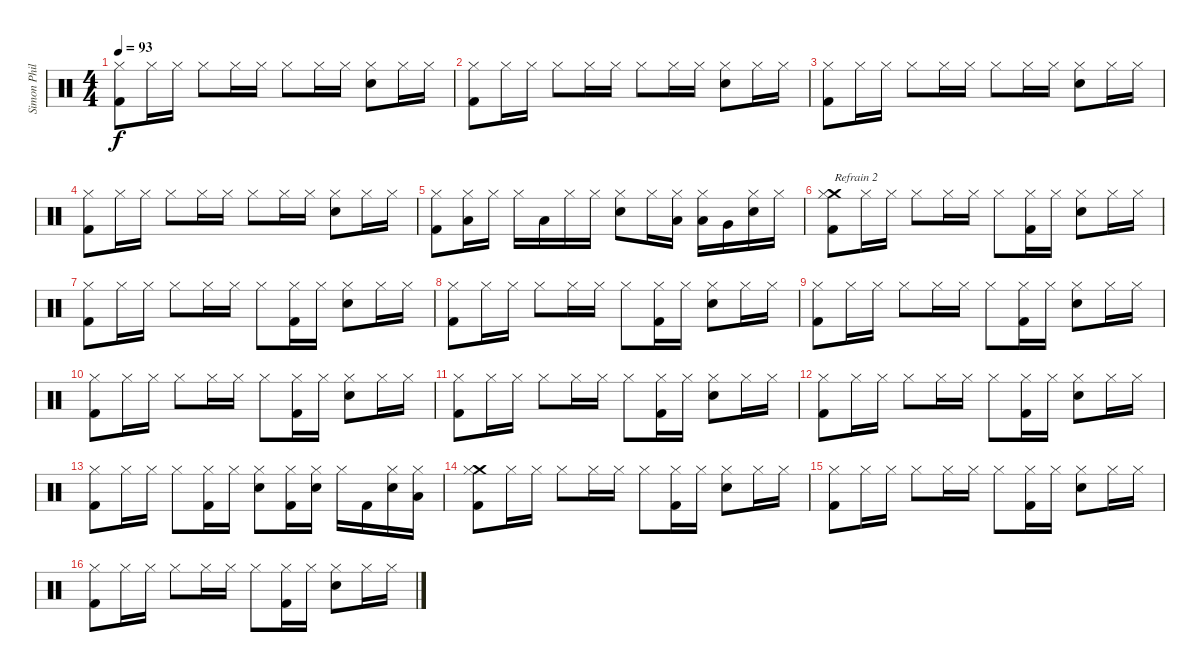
\track ("Simon Phillips" "Simon Phil") {instrument percussion}
\staff {score}
\articulation defaults
\ts (4 4)
\tempo 93
\clef neutral
\ks c
("Hi-Hat (closed)" "Kick (hit) 2").8{dy f} "Hi-Hat (closed)".16 "Hi-Hat (closed)".16 "Hi-Hat (closed)".8 "Hi-Hat (closed)".16 "Hi-Hat (closed)".16 "Hi-Hat (closed)".8 "Hi-Hat (closed)".16 "Hi-Hat (closed)".16 ("Electric Snare (hit)" "Hi-Hat (closed)").8 "Hi-Hat (closed)".16 "Hi-Hat (closed)".16 |
("Hi-Hat (closed)" "Kick (hit) 2").8 "Hi-Hat (closed)".16 "Hi-Hat (closed)".16 "Hi-Hat (closed)".8 "Hi-Hat (closed)".16 "Hi-Hat (closed)".16 "Hi-Hat (closed)".8 "Hi-Hat (closed)".16 "Hi-Hat (closed)".16 ("Electric Snare (hit)" "Hi-Hat (closed)").8 "Hi-Hat (closed)".16 "Hi-Hat (closed)".16 |
("Hi-Hat (closed)" "Kick (hit) 2").8 "Hi-Hat (closed)".16 "Hi-Hat (closed)".16 "Hi-Hat (closed)".8 "Hi-Hat (closed)".16 "Hi-Hat (closed)".16 "Hi-Hat (closed)".8 "Hi-Hat (closed)".16 "Hi-Hat (closed)".16 ("Electric Snare (hit)" "Hi-Hat (closed)").8 "Hi-Hat (closed)".16 "Hi-Hat (closed)".16 |
("Hi-Hat (closed)" "Kick (hit) 2").8 "Hi-Hat (closed)".16 "Hi-Hat (closed)".16 "Hi-Hat (closed)".8 "Hi-Hat (closed)".16 "Hi-Hat (closed)".16 "Hi-Hat (closed)".8 "Hi-Hat (closed)".16 "Hi-Hat (closed)".16 ("Electric Snare (hit)" "Hi-Hat (closed)").8 "Hi-Hat (closed)".16 "Hi-Hat (closed)".16 |
("Hi-Hat (closed)" "Kick (hit) 2").8 ("Low Tom (hit)" "Hi-Hat (closed)").16 "Hi-Hat (closed)".16 "Hi-Hat (closed)".16 "Low Tom (hit)".16 "Hi-Hat (closed)".16 "Hi-Hat (closed)".16 ("Electric Snare (hit)" "Hi-Hat (closed)").8 "Hi-Hat (closed)".16 ("Low Tom (hit)" "Hi-Hat (closed)").16 ("Low Tom (hit)" "Hi-Hat (closed)").16 "Very Low Tom (hit)".16 ("Electric Snare (hit)" "Hi-Hat (closed)").16 "Hi-Hat (closed)".16 |
("Crash medium (hit)" "Hi-Hat (closed)" "Kick (hit) 2").8{txt "Refrain 2"} "Hi-Hat (closed)".16 "Hi-Hat (closed)".16 "Hi-Hat (closed)".8 "Hi-Hat (closed)".16 "Hi-Hat (closed)".16 "Hi-Hat (closed)".8 ("Hi-Hat (closed)" "Kick (hit) 2").16 "Hi-Hat (closed)".16 ("Electric Snare (hit)" "Hi-Hat (closed)").8 "Hi-Hat (closed)".16 "Hi-Hat (closed)".16 |
("Hi-Hat (closed)" "Kick (hit) 2").8 "Hi-Hat (closed)".16 "Hi-Hat (closed)".16 "Hi-Hat (closed)".8 "Hi-Hat (closed)".16 "Hi-Hat (closed)".16 "Hi-Hat (closed)".8 ("Hi-Hat (closed)" "Kick (hit) 2").16 "Hi-Hat (closed)".16 ("Electric Snare (hit)" "Hi-Hat (closed)").8 "Hi-Hat (closed)".16 "Hi-Hat (closed)".16 |
("Hi-Hat (closed)" "Kick (hit) 2").8 "Hi-Hat (closed)".16 "Hi-Hat (closed)".16 "Hi-Hat (closed)".8 "Hi-Hat (closed)".16 "Hi-Hat (closed)".16 "Hi-Hat (closed)".8 ("Hi-Hat (closed)" "Kick (hit) 2").16 "Hi-Hat (closed)".16 ("Electric Snare (hit)" "Hi-Hat (closed)").8 "Hi-Hat (closed)".16 "Hi-Hat (closed)".16 |
("Hi-Hat (closed)" "Kick (hit) 2").8 "Hi-Hat (closed)".16 "Hi-Hat (closed)".16 "Hi-Hat (closed)".8 "Hi-Hat (closed)".16 "Hi-Hat (closed)".16 "Hi-Hat (closed)".8 ("Hi-Hat (closed)" "Kick (hit) 2").16 "Hi-Hat (closed)".16 ("Electric Snare (hit)" "Hi-Hat (closed)").8 "Hi-Hat (closed)".16 "Hi-Hat (closed)".16 |
("Hi-Hat (closed)" "Kick (hit) 2").8 "Hi-Hat (closed)".16 "Hi-Hat (closed)".16 "Hi-Hat (closed)".8 "Hi-Hat (closed)".16 "Hi-Hat (closed)".16 "Hi-Hat (closed)".8 ("Hi-Hat (closed)" "Kick (hit) 2").16 "Hi-Hat (closed)".16 ("Electric Snare (hit)" "Hi-Hat (closed)").8 "Hi-Hat (closed)".16 "Hi-Hat (closed)".16 |
("Hi-Hat (closed)" "Kick (hit) 2").8 "Hi-Hat (closed)".16 "Hi-Hat (closed)".16 "Hi-Hat (closed)".8 "Hi-Hat (closed)".16 "Hi-Hat (closed)".16 "Hi-Hat (closed)".8 ("Hi-Hat (closed)" "Kick (hit) 2").16 "Hi-Hat (closed)".16 ("Electric Snare (hit)" "Hi-Hat (closed)").8 "Hi-Hat (closed)".16 "Hi-Hat (closed)".16 |
("Hi-Hat (closed)" "Kick (hit) 2").8 "Hi-Hat (closed)".16 "Hi-Hat (closed)".16 "Hi-Hat (closed)".8 "Hi-Hat (closed)".16 "Hi-Hat (closed)".16 "Hi-Hat (closed)".8 ("Hi-Hat (closed)" "Kick (hit) 2").16 "Hi-Hat (closed)".16 ("Electric Snare (hit)" "Hi-Hat (closed)").8 "Hi-Hat (closed)".16 "Hi-Hat (closed)".16 |
("Hi-Hat (closed)" "Kick (hit) 2").8 "Hi-Hat (closed)".16 "Hi-Hat (closed)".16 "Hi-Hat (closed)".8 ("Hi-Hat (closed)" "Kick (hit) 2").16 "Hi-Hat (closed)".16 ("Electric Snare (hit)" "Hi-Hat (closed)").8 ("Hi-Hat (closed)" "Kick (hit) 2").16 ("Electric Snare (hit)" "Hi-Hat (closed)").16 "Hi-Hat (closed)".16 "Kick (hit) 2".16 ("Electric Snare (hit)" "Hi-Hat (closed)").16 ("Low Tom (hit)" "Hi-Hat (closed)").16 |
("Crash medium (hit)" "Hi-Hat (closed)" "Kick (hit) 2").8 "Hi-Hat (closed)".16 "Hi-Hat (closed)".16 "Hi-Hat (closed)".8 "Hi-Hat (closed)".16 "Hi-Hat (closed)".16 "Hi-Hat (closed)".8 ("Hi-Hat (closed)" "Kick (hit) 2").16 "Hi-Hat (closed)".16 ("Electric Snare (hit)" "Hi-Hat (closed)").8 "Hi-Hat (closed)".16 "Hi-Hat (closed)".16 |
("Hi-Hat (closed)" "Kick (hit) 2").8 "Hi-Hat (closed)".16 "Hi-Hat (closed)".16 "Hi-Hat (closed)".8 "Hi-Hat (closed)".16 "Hi-Hat (closed)".16 "Hi-Hat (closed)".8 ("Hi-Hat (closed)" "Kick (hit) 2").16 "Hi-Hat (closed)".16 ("Electric Snare (hit)" "Hi-Hat (closed)").8 "Hi-Hat (closed)".16 "Hi-Hat (closed)".16 |
("Hi-Hat (closed)" "Kick (hit) 2").8 "Hi-Hat (closed)".16 "Hi-Hat (closed)".16 "Hi-Hat (closed)".8 "Hi-Hat (closed)".16 "Hi-Hat (closed)".16 "Hi-Hat (closed)".8 ("Hi-Hat (closed)" "Kick (hit) 2").16 "Hi-Hat (closed)".16 ("Electric Snare (hit)" "Hi-Hat (closed)").8 "Hi-Hat (closed)".16 "Hi-Hat (closed)".16
